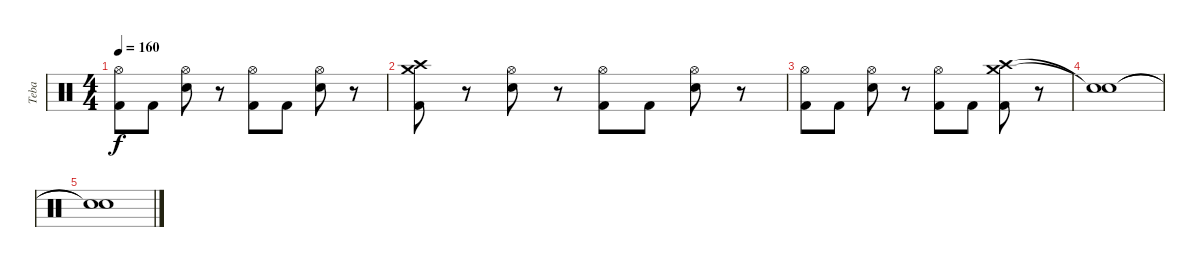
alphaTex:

\track ("Teba" "Teba") {instrument percussion}
\staff {score}
\articulation defaults
\ts (4 4)
\tempo 160
\clef neutral
\ks c
("Hi-Hat (open)" "Kick (hit) 2").8{dy f} "Kick (hit) 2".8 ("Hi-Hat (open)" "Electric Snare (hit)").8 r.8 ("Hi-Hat (open)" "Kick (hit) 2").8 "Kick (hit) 2".8 ("Hi-Hat (open)" "Electric Snare (hit)").8 r.8 |
("Crash medium (hit)" "Crash high (hit)" "Kick (hit) 2").8 r.8 ("Hi-Hat (open)" "Electric Snare (hit)").8 r.8 ("Hi-Hat (open)" "Kick (hit) 2").8 "Kick (hit) 2".8 ("Hi-Hat (open)" "Electric Snare (hit)").8 r.8 |
("Hi-Hat (open)" "Kick (hit) 2").8 "Kick (hit) 2".8 ("Hi-Hat (open)" "Electric Snare (hit)").8 r.8 ("Hi-Hat (open)" "Kick (hit) 2").8 "Kick (hit) 2".8 ("Crash medium (hit)" "Crash high (hit)" "Kick (hit) 2").8 r.8 |
("Snare (hit)"{t} "Snare (hit)"{t}).1 |
("Snare (hit)"{t} "Snare (hit)"{t}).1
